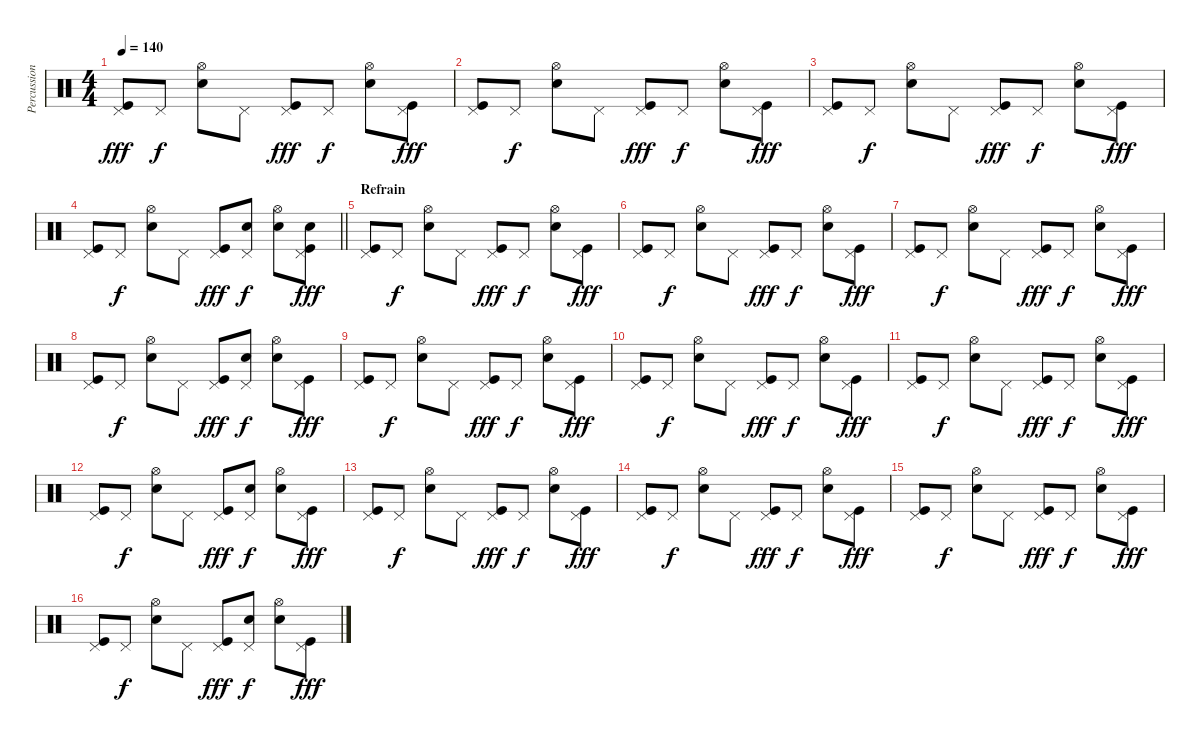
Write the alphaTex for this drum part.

\track ("Percussion" "Percussion") {instrument percussion}
\staff {score}
\articulation defaults
\ts (4 4)
\tempo 140
\clef neutral
\ks c
("Kick (hit)" "Pedal Hi-Hat (hit)").8{dy fff} "Pedal Hi-Hat (hit)".8{dy f} ("Metronome (bell)" "Hi-Hat (open)").8 "Pedal Hi-Hat (hit)".8 ("Kick (hit)" "Pedal Hi-Hat (hit)").8{dy fff} "Pedal Hi-Hat (hit)".8{dy f} ("Metronome (bell)" "Hi-Hat (open)").8 ("Kick (hit)" "Pedal Hi-Hat (hit)").8{dy fff} |
("Kick (hit)" "Pedal Hi-Hat (hit)").8 "Pedal Hi-Hat (hit)".8{dy f} ("Metronome (bell)" "Hi-Hat (open)").8 "Pedal Hi-Hat (hit)".8 ("Kick (hit)" "Pedal Hi-Hat (hit)").8{dy fff} "Pedal Hi-Hat (hit)".8{dy f} ("Metronome (bell)" "Hi-Hat (open)").8 ("Kick (hit)" "Pedal Hi-Hat (hit)").8{dy fff} |
("Kick (hit)" "Pedal Hi-Hat (hit)").8 "Pedal Hi-Hat (hit)".8{dy f} ("Metronome (bell)" "Hi-Hat (open)").8 "Pedal Hi-Hat (hit)".8 ("Kick (hit)" "Pedal Hi-Hat (hit)").8{dy fff} "Pedal Hi-Hat (hit)".8{dy f} ("Metronome (bell)" "Hi-Hat (open)").8 ("Kick (hit)" "Pedal Hi-Hat (hit)").8{dy fff} |
\barLineRight lightlight
("Kick (hit)" "Pedal Hi-Hat (hit)").8 "Pedal Hi-Hat (hit)".8{dy f} ("Metronome (bell)" "Hi-Hat (open)").8 "Pedal Hi-Hat (hit)".8 ("Kick (hit)" "Pedal Hi-Hat (hit)").8{dy fff} ("Metronome (bell)" "Pedal Hi-Hat (hit)").8{dy f} ("Metronome (bell)" "Hi-Hat (open)").8 ("Kick (hit)" "Metronome (bell)" "Pedal Hi-Hat (hit)").8{dy fff} |
\section ("" "Refrain")
("Kick (hit)" "Pedal Hi-Hat (hit)").8 "Pedal Hi-Hat (hit)".8{dy f} ("Metronome (bell)" "Hi-Hat (open)").8 "Pedal Hi-Hat (hit)".8 ("Kick (hit)" "Pedal Hi-Hat (hit)").8{dy fff} "Pedal Hi-Hat (hit)".8{dy f} ("Metronome (bell)" "Hi-Hat (open)").8 ("Kick (hit)" "Pedal Hi-Hat (hit)").8{dy fff} |
("Kick (hit)" "Pedal Hi-Hat (hit)").8 "Pedal Hi-Hat (hit)".8{dy f} ("Metronome (bell)" "Hi-Hat (open)").8 "Pedal Hi-Hat (hit)".8 ("Kick (hit)" "Pedal Hi-Hat (hit)").8{dy fff} "Pedal Hi-Hat (hit)".8{dy f} ("Metronome (bell)" "Hi-Hat (open)").8 ("Kick (hit)" "Pedal Hi-Hat (hit)").8{dy fff} |
("Kick (hit)" "Pedal Hi-Hat (hit)").8 "Pedal Hi-Hat (hit)".8{dy f} ("Metronome (bell)" "Hi-Hat (open)").8 "Pedal Hi-Hat (hit)".8 ("Kick (hit)" "Pedal Hi-Hat (hit)").8{dy fff} "Pedal Hi-Hat (hit)".8{dy f} ("Metronome (bell)" "Hi-Hat (open)").8 ("Kick (hit)" "Pedal Hi-Hat (hit)").8{dy fff} |
("Kick (hit)" "Pedal Hi-Hat (hit)").8 "Pedal Hi-Hat (hit)".8{dy f} ("Metronome (bell)" "Hi-Hat (open)").8 "Pedal Hi-Hat (hit)".8 ("Kick (hit)" "Pedal Hi-Hat (hit)").8{dy fff} ("Metronome (bell)" "Pedal Hi-Hat (hit)").8{dy f} ("Metronome (bell)" "Hi-Hat (open)").8 ("Kick (hit)" "Pedal Hi-Hat (hit)").8{dy fff} |
("Kick (hit)" "Pedal Hi-Hat (hit)").8 "Pedal Hi-Hat (hit)".8{dy f} ("Metronome (bell)" "Hi-Hat (open)").8 "Pedal Hi-Hat (hit)".8 ("Kick (hit)" "Pedal Hi-Hat (hit)").8{dy fff} "Pedal Hi-Hat (hit)".8{dy f} ("Metronome (bell)" "Hi-Hat (open)").8 ("Kick (hit)" "Pedal Hi-Hat (hit)").8{dy fff} |
("Kick (hit)" "Pedal Hi-Hat (hit)").8 "Pedal Hi-Hat (hit)".8{dy f} ("Metronome (bell)" "Hi-Hat (open)").8 "Pedal Hi-Hat (hit)".8 ("Kick (hit)" "Pedal Hi-Hat (hit)").8{dy fff} "Pedal Hi-Hat (hit)".8{dy f} ("Metronome (bell)" "Hi-Hat (open)").8 ("Kick (hit)" "Pedal Hi-Hat (hit)").8{dy fff} |
("Kick (hit)" "Pedal Hi-Hat (hit)").8 "Pedal Hi-Hat (hit)".8{dy f} ("Metronome (bell)" "Hi-Hat (open)").8 "Pedal Hi-Hat (hit)".8 ("Kick (hit)" "Pedal Hi-Hat (hit)").8{dy fff} "Pedal Hi-Hat (hit)".8{dy f} ("Metronome (bell)" "Hi-Hat (open)").8 ("Kick (hit)" "Pedal Hi-Hat (hit)").8{dy fff} |
("Kick (hit)" "Pedal Hi-Hat (hit)").8 "Pedal Hi-Hat (hit)".8{dy f} ("Metronome (bell)" "Hi-Hat (open)").8 "Pedal Hi-Hat (hit)".8 ("Kick (hit)" "Pedal Hi-Hat (hit)").8{dy fff} ("Metronome (bell)" "Pedal Hi-Hat (hit)").8{dy f} ("Metronome (bell)" "Hi-Hat (open)").8 ("Kick (hit)" "Pedal Hi-Hat (hit)").8{dy fff} |
("Kick (hit)" "Pedal Hi-Hat (hit)").8 "Pedal Hi-Hat (hit)".8{dy f} ("Metronome (bell)" "Hi-Hat (open)").8 "Pedal Hi-Hat (hit)".8 ("Kick (hit)" "Pedal Hi-Hat (hit)").8{dy fff} "Pedal Hi-Hat (hit)".8{dy f} ("Metronome (bell)" "Hi-Hat (open)").8 ("Kick (hit)" "Pedal Hi-Hat (hit)").8{dy fff} |
("Kick (hit)" "Pedal Hi-Hat (hit)").8 "Pedal Hi-Hat (hit)".8{dy f} ("Metronome (bell)" "Hi-Hat (open)").8 "Pedal Hi-Hat (hit)".8 ("Kick (hit)" "Pedal Hi-Hat (hit)").8{dy fff} "Pedal Hi-Hat (hit)".8{dy f} ("Metronome (bell)" "Hi-Hat (open)").8 ("Kick (hit)" "Pedal Hi-Hat (hit)").8{dy fff} |
("Kick (hit)" "Pedal Hi-Hat (hit)").8 "Pedal Hi-Hat (hit)".8{dy f} ("Metronome (bell)" "Hi-Hat (open)").8 "Pedal Hi-Hat (hit)".8 ("Kick (hit)" "Pedal Hi-Hat (hit)").8{dy fff} "Pedal Hi-Hat (hit)".8{dy f} ("Metronome (bell)" "Hi-Hat (open)").8 ("Kick (hit)" "Pedal Hi-Hat (hit)").8{dy fff} |
("Kick (hit)" "Pedal Hi-Hat (hit)").8 "Pedal Hi-Hat (hit)".8{dy f} ("Metronome (bell)" "Hi-Hat (open)").8 "Pedal Hi-Hat (hit)".8 ("Kick (hit)" "Pedal Hi-Hat (hit)").8{dy fff} ("Metronome (bell)" "Pedal Hi-Hat (hit)").8{dy f} ("Metronome (bell)" "Hi-Hat (open)").8 ("Kick (hit)" "Pedal Hi-Hat (hit)").8{dy fff}
